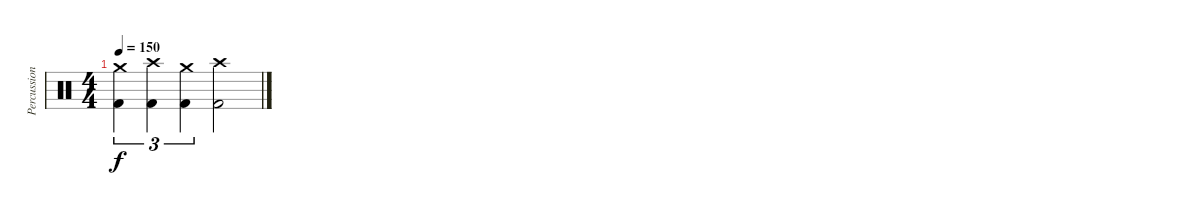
\track ("Percussion" "Percussion") {instrument percussion}
\staff {score}
\articulation defaults
\ts (4 4)
\tempo 150
\clef neutral
\ks c
("Crash medium (hit)" "Kick (hit) 2").4{tu (3 2) dy f} ("Crash high (hit)" "Kick (hit) 2").4{tu (3 2)} ("Crash medium (hit)" "Kick (hit) 2").4{tu (3 2)} ("Crash high (hit)" "Kick (hit) 2").2
